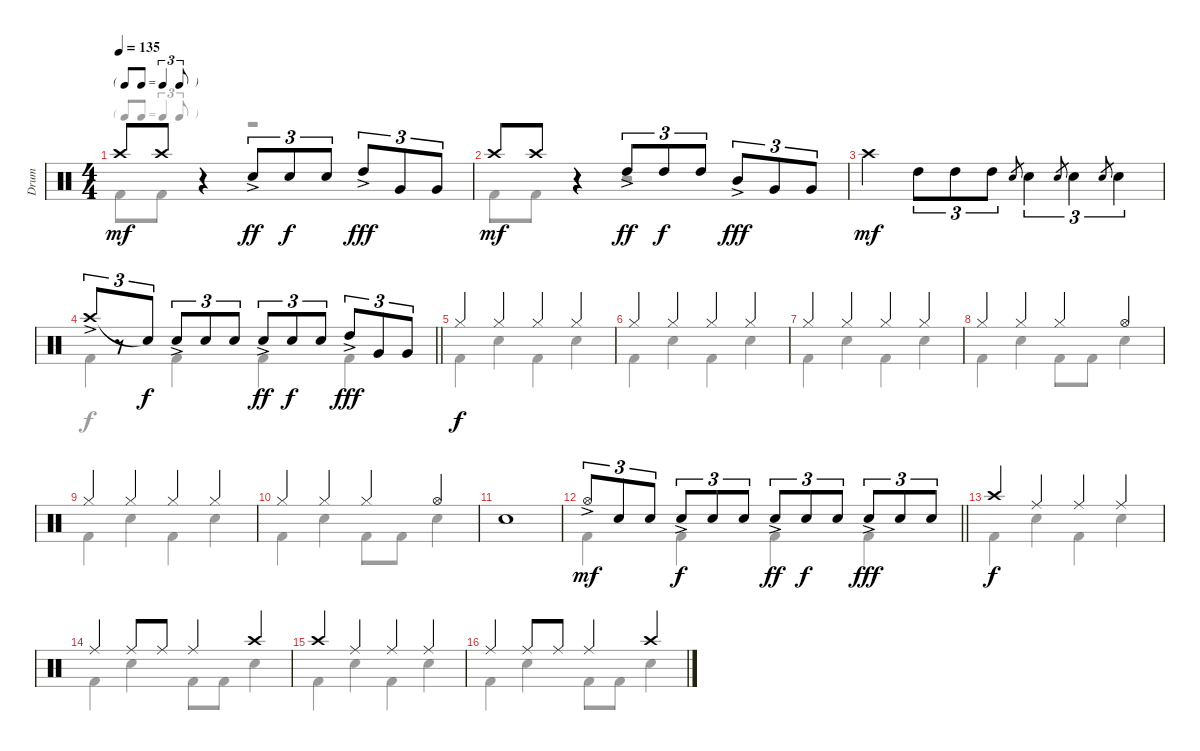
\track ("Drum" "Drum") {instrument percussion}
\staff {score}
\articulation defaults
\voice
\ts (4 4)
\tf triplet8th
\tempo 135
\clef neutral
\ks c "Crash high (hit)".8{dy mf} "Crash high (hit)".8
r.4 "Snare (hit) 2"{ac}.8{tu (3 2) dy ff} "Snare (hit) 2".8{tu (3 2) dy f} "Snare (hit) 2".8{tu (3 2)} "High Tom (hit)"{ac}.8{tu (3 2) dy fff} "Very Low Tom (hit)".8{tu (3 2)} "Very Low Tom (hit)".8{tu (3 2)} |
"Crash high (hit)".8{dy mf} "Crash high (hit)".8 r.4 "High Tom (hit)"{ac}.8{tu (3 2) dy ff} "High Tom (hit)".8{tu (3 2) dy f} "High Tom (hit)".8{tu (3 2)} "Mid Tom (hit)"{ac}.8{tu (3 2) dy fff} "Very Low Tom (hit)".8{tu (3 2)} "Very Low Tom (hit)".8{tu (3 2)} |
"Crash high (hit)".4{dy mf} "High Tom (hit)".8{tu (3 2)} "High Tom (hit)".8{tu (3 2)} "High Tom (hit)".8{tu (3 2)} "Snare (hit) 2".8{gr} "Snare (hit) 2".4{tu (3 2)} "Snare (hit) 2".8{gr} "Snare (hit) 2".4{tu (3 2)} "Snare (hit) 2".8{gr} "Snare (hit) 2".4{tu (3 2)} |
\barLineRight lightlight "Crash high (hit)"{ac}.8{tu (3 2)}
r.8{tu (3 2)} "Snare (hit) 2"{t}.8{tu (3 2) dy f} "Snare (hit) 2"{ac}.8{tu (3 2)} "Snare (hit) 2".8{tu (3 2)} "Snare (hit) 2".8{tu (3 2)} "Snare (hit) 2"{ac}.8{tu (3 2) dy ff} "Snare (hit) 2".8{tu (3 2) dy f} "Snare (hit) 2".8{tu (3 2)} "High Tom (hit)"{ac}.8{tu (3 2) dy fff} "Very Low Tom (hit)".8{tu (3 2)} "Very Low Tom (hit)".8{tu (3 2)} |
"Hi-Hat (closed)".4{dy f} "Hi-Hat (closed)".4 "Hi-Hat (closed)".4 "Hi-Hat (closed)".4 |
"Hi-Hat (closed)".4 "Hi-Hat (closed)".4 "Hi-Hat (closed)".4 "Hi-Hat (closed)".4 |
"Hi-Hat (closed)".4 "Hi-Hat (closed)".4 "Hi-Hat (closed)".4 "Hi-Hat (closed)".4 |
"Hi-Hat (closed)".4 "Hi-Hat (closed)".4 "Hi-Hat (closed)".4 "Hi-Hat (open)".4 |
"Hi-Hat (closed)".4 "Hi-Hat (closed)".4 "Hi-Hat (closed)".4 "Hi-Hat (closed)".4 |
"Hi-Hat (closed)".4 "Hi-Hat (closed)".4 "Hi-Hat (closed)".4 "Hi-Hat (open)".4 |
"Snare (hit) 2".1 |
\barLineRight lightlight "Hi-Hat (open)"{ac}.8{tu (3 2) dy mf} "Snare (hit) 2".8{tu (3 2)} "Snare (hit) 2".8{tu (3 2)} "Snare (hit) 2"{ac}.8{tu (3 2) dy f} "Snare (hit) 2".8{tu (3 2)} "Snare (hit) 2".8{tu (3 2)} "Snare (hit) 2"{ac}.8{tu (3 2) dy ff} "Snare (hit) 2".8{tu (3 2) dy f} "Snare (hit) 2".8{tu (3 2)} "Snare (hit) 2"{ac}.8{tu (3 2) dy fff} "Snare (hit) 2".8{tu (3 2)} "Snare (hit) 2".8{tu (3 2)}
|
"Crash high (hit)".4{dy f} "Ride (middle)".4 "Ride (middle)".4 "Ride (middle)".4 |
"Ride (middle)".4 "Ride (middle)".8 "Ride (middle)".8 "Ride (middle)".4 "Crash high (hit)".4 |
"Crash high (hit)".4 "Ride (middle)".4 "Ride (middle)".4 "Ride (middle)".4 |
"Ride (middle)".4 "Ride (middle)".8 "Ride (middle)".8 "Ride (middle)".4 "Crash high (hit)".4
\voice
\clef neutral
\ottava regular
\simile none
\ks c "Kick (hit) 2".8{dy mf} "Kick (hit) 2".8
r.4 r.2 |
"Kick (hit) 2".8 "Kick (hit) 2".8 r.4 r.2 |
|
\barLineRight lightlight "Kick (hit) 2".4{dy f} "Kick (hit) 2".4 "Kick (hit) 2".4 "Kick (hit) 2".4
|
"Kick (hit) 2".4 "Snare (hit) 2".4 "Kick (hit) 2".4 "Snare (hit) 2".4 |
"Kick (hit) 2".4 "Snare (hit) 2".4 "Kick (hit) 2".4 "Snare (hit) 2".4 |
"Kick (hit) 2".4 "Snare (hit) 2".4 "Kick (hit) 2".4 "Snare (hit) 2".4 |
"Kick (hit) 2".4 "Snare (hit) 2".4 "Kick (hit) 2".8 "Kick (hit) 2".8 "Snare (hit) 2".4 |
"Kick (hit) 2".4 "Snare (hit) 2".4 "Kick (hit) 2".4 "Snare (hit) 2".4 |
"Kick (hit) 2".4 "Snare (hit) 2".4 "Kick (hit) 2".8 "Kick (hit) 2".8 "Snare (hit) 2".4 |
|
\barLineRight lightlight "Kick (hit) 2".4 "Kick (hit) 2".4 "Kick (hit) 2".4 "Kick (hit) 2".4
|
"Kick (hit) 2".4 "Snare (hit) 2".4 "Kick (hit) 2".4 "Snare (hit) 2".4 |
"Kick (hit) 2".4 "Snare (hit) 2".4 "Kick (hit) 2".8 "Kick (hit) 2".8 "Snare (hit) 2".4 |
"Kick (hit) 2".4 "Snare (hit) 2".4 "Kick (hit) 2".4 "Snare (hit) 2".4 |
"Kick (hit) 2".4 "Snare (hit) 2".4 "Kick (hit) 2".8 "Kick (hit) 2".8 "Snare (hit) 2".4
